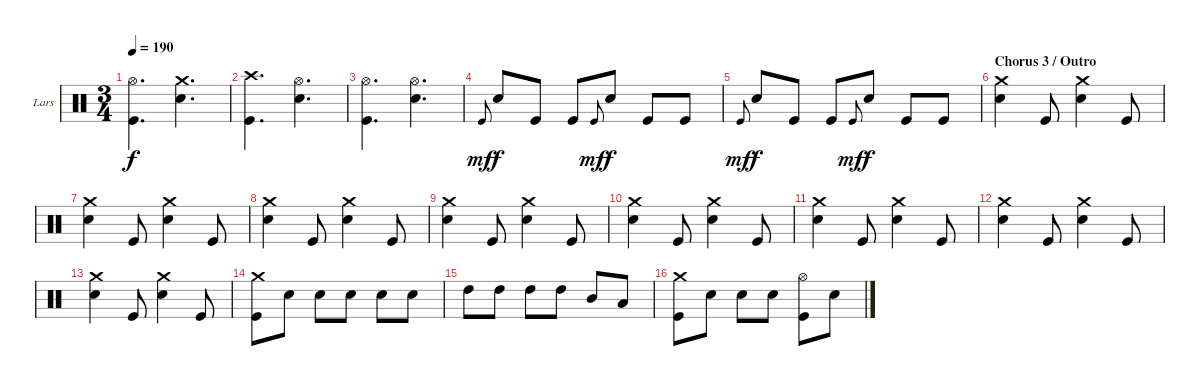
\bracketExtendMode groupsimilarinstruments
\firstSystemTrackNameOrientation horizontal
\otherSystemsTrackNameOrientation horizontal
\track ("Drumkit" "Lars") {instrument percussion}
\staff {score}
\articulation defaults
\ts (3 4)
\tempo 190
\clef neutral
\ks c
("Hi-Hat (open)" "Kick (hit)").4{d dy f} ("Crash medium (hit)" "Snare (hit) 2").4{d} |
("Crash high (hit)" "Kick (hit)").4{d} ("Hi-Hat (open)" "Snare (hit) 2").4{d} |
("Hi-Hat (open)" "Kick (hit)").4{d} ("Hi-Hat (open)" "Snare (hit) 2").4{d} |
"Kick (hit)".8{gr onbeat dy mf} "Snare (hit) 2".8{dy f} "Kick (hit)".8 "Kick (hit)".8 "Kick (hit)".8{gr onbeat dy mf} "Snare (hit) 2".8{dy f} "Kick (hit)".8 "Kick (hit)".8 |
"Kick (hit)".8{gr onbeat dy mf} "Snare (hit) 2".8{dy f} "Kick (hit)".8 "Kick (hit)".8 "Kick (hit)".8{gr onbeat dy mf} "Snare (hit) 2".8{dy f} "Kick (hit)".8 "Kick (hit)".8 |
\section ("" "Chorus 3 / Outro")
("Crash medium (hit)" "Snare (hit) 2").4 "Kick (hit)".8 ("Crash medium (hit)" "Snare (hit) 2").4 "Kick (hit)".8 |
("Crash medium (hit)" "Snare (hit) 2").4 "Kick (hit)".8 ("Crash medium (hit)" "Snare (hit) 2").4 "Kick (hit)".8 |
("Crash medium (hit)" "Snare (hit) 2").4 "Kick (hit)".8 ("Crash medium (hit)" "Snare (hit) 2").4 "Kick (hit)".8 |
("Crash medium (hit)" "Snare (hit) 2").4 "Kick (hit)".8 ("Crash medium (hit)" "Snare (hit) 2").4 "Kick (hit)".8 |
("Crash medium (hit)" "Snare (hit) 2").4 "Kick (hit)".8 ("Crash medium (hit)" "Snare (hit) 2").4 "Kick (hit)".8 |
("Crash medium (hit)" "Snare (hit) 2").4 "Kick (hit)".8 ("Crash medium (hit)" "Snare (hit) 2").4 "Kick (hit)".8 |
("Crash medium (hit)" "Snare (hit) 2").4 "Kick (hit)".8 ("Crash medium (hit)" "Snare (hit) 2").4 "Kick (hit)".8 |
("Crash medium (hit)" "Snare (hit) 2").4 "Kick (hit)".8 ("Crash medium (hit)" "Snare (hit) 2").4 "Kick (hit)".8 |
("Crash medium (hit)" "Kick (hit)").8 "Snare (hit) 2".8 "Snare (hit) 2".8 "Snare (hit) 2".8 "Snare (hit) 2".8 "Snare (hit) 2".8 |
"High Tom (hit)".8 "High Tom (hit)".8 "High Tom (hit)".8 "High Tom (hit)".8 "Mid Tom (hit)".8 "Low Tom (hit)".8 |
("Crash medium (hit)" "Kick (hit)").8 "Snare (hit) 2".8 "Snare (hit) 2".8 "Snare (hit) 2".8 ("Hi-Hat (open)" "Kick (hit)").8 "Snare (hit) 2".8
